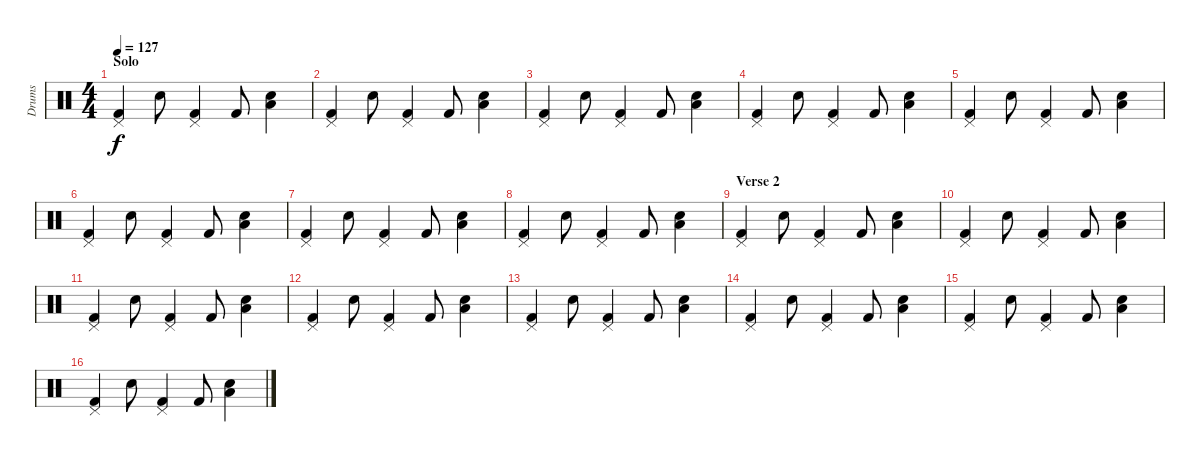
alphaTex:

\track ("Drums" "Drums") {instrument percussion}
\staff {score}
\articulation defaults
\ts (4 4)
\section ("" "Solo")
\tempo 127
\clef neutral
\ks c
("Pedal Hi-Hat (hit)" "Kick (hit) 2").4{dy f} "Snare (hit) 2".8 ("Pedal Hi-Hat (hit)" "Kick (hit) 2").4 "Kick (hit) 2".8 ("Low Floor Tom (hit)" "Snare (hit) 2").4 |
("Pedal Hi-Hat (hit)" "Kick (hit) 2").4 "Snare (hit) 2".8 ("Pedal Hi-Hat (hit)" "Kick (hit) 2").4 "Kick (hit) 2".8 ("Low Floor Tom (hit)" "Snare (hit) 2").4 |
("Pedal Hi-Hat (hit)" "Kick (hit) 2").4 "Snare (hit) 2".8 ("Pedal Hi-Hat (hit)" "Kick (hit) 2").4 "Kick (hit) 2".8 ("Low Floor Tom (hit)" "Snare (hit) 2").4 |
("Pedal Hi-Hat (hit)" "Kick (hit) 2").4 "Snare (hit) 2".8 ("Pedal Hi-Hat (hit)" "Kick (hit) 2").4 "Kick (hit) 2".8 ("Low Floor Tom (hit)" "Snare (hit) 2").4 |
("Pedal Hi-Hat (hit)" "Kick (hit) 2").4 "Snare (hit) 2".8 ("Pedal Hi-Hat (hit)" "Kick (hit) 2").4 "Kick (hit) 2".8 ("Low Floor Tom (hit)" "Snare (hit) 2").4 |
("Pedal Hi-Hat (hit)" "Kick (hit) 2").4 "Snare (hit) 2".8 ("Pedal Hi-Hat (hit)" "Kick (hit) 2").4 "Kick (hit) 2".8 ("Low Floor Tom (hit)" "Snare (hit) 2").4 |
("Pedal Hi-Hat (hit)" "Kick (hit) 2").4 "Snare (hit) 2".8 ("Pedal Hi-Hat (hit)" "Kick (hit) 2").4 "Kick (hit) 2".8 ("Low Floor Tom (hit)" "Snare (hit) 2").4 |
("Pedal Hi-Hat (hit)" "Kick (hit) 2").4 "Snare (hit) 2".8 ("Pedal Hi-Hat (hit)" "Kick (hit) 2").4 "Kick (hit) 2".8 ("Low Floor Tom (hit)" "Snare (hit) 2").4 |
\section ("" "Verse 2")
("Pedal Hi-Hat (hit)" "Kick (hit) 2").4 "Snare (hit) 2".8 ("Pedal Hi-Hat (hit)" "Kick (hit) 2").4 "Kick (hit) 2".8 ("Low Floor Tom (hit)" "Snare (hit) 2").4 |
("Pedal Hi-Hat (hit)" "Kick (hit) 2").4 "Snare (hit) 2".8 ("Pedal Hi-Hat (hit)" "Kick (hit) 2").4 "Kick (hit) 2".8 ("Low Floor Tom (hit)" "Snare (hit) 2").4 |
("Pedal Hi-Hat (hit)" "Kick (hit) 2").4 "Snare (hit) 2".8 ("Pedal Hi-Hat (hit)" "Kick (hit) 2").4 "Kick (hit) 2".8 ("Low Floor Tom (hit)" "Snare (hit) 2").4 |
("Pedal Hi-Hat (hit)" "Kick (hit) 2").4 "Snare (hit) 2".8 ("Pedal Hi-Hat (hit)" "Kick (hit) 2").4 "Kick (hit) 2".8 ("Low Floor Tom (hit)" "Snare (hit) 2").4 |
("Pedal Hi-Hat (hit)" "Kick (hit) 2").4 "Snare (hit) 2".8 ("Pedal Hi-Hat (hit)" "Kick (hit) 2").4 "Kick (hit) 2".8 ("Low Floor Tom (hit)" "Snare (hit) 2").4 |
("Pedal Hi-Hat (hit)" "Kick (hit) 2").4 "Snare (hit) 2".8 ("Pedal Hi-Hat (hit)" "Kick (hit) 2").4 "Kick (hit) 2".8 ("Low Floor Tom (hit)" "Snare (hit) 2").4 |
("Pedal Hi-Hat (hit)" "Kick (hit) 2").4 "Snare (hit) 2".8 ("Pedal Hi-Hat (hit)" "Kick (hit) 2").4 "Kick (hit) 2".8 ("Low Floor Tom (hit)" "Snare (hit) 2").4 |
("Pedal Hi-Hat (hit)" "Kick (hit) 2").4 "Snare (hit) 2".8 ("Pedal Hi-Hat (hit)" "Kick (hit) 2").4 "Kick (hit) 2".8 ("Low Floor Tom (hit)" "Snare (hit) 2").4
